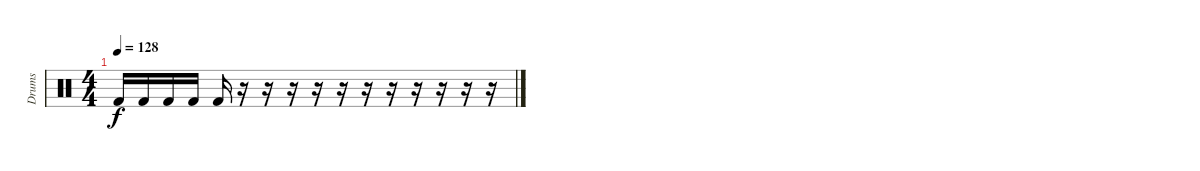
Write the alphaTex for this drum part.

\track ("Drums" "Drums") {instrument percussion}
\staff {score}
\articulation defaults
\ts (4 4)
\tempo 128
\clef neutral
\ks c "Kick (hit) 2".16{dy f} "Kick (hit) 2".16 "Kick (hit) 2".16 "Kick (hit) 2".16 "Kick (hit) 2".16
r.16 r.16 r.16 r.16 r.16 r.16 r.16 r.16 r.16 r.16 r.16
